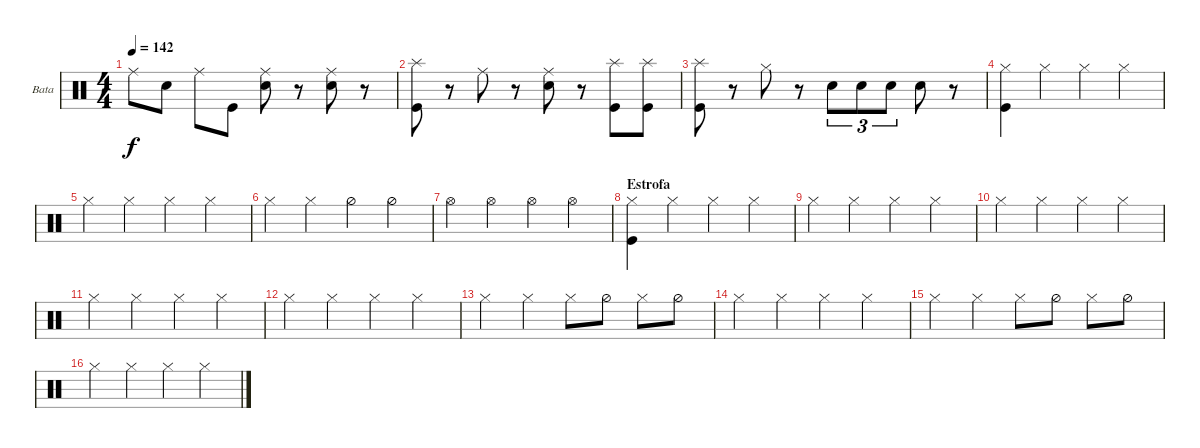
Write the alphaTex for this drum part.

\bracketExtendMode groupsimilarinstruments
\firstSystemTrackNameOrientation horizontal
\otherSystemsTrackNameOrientation horizontal
\track ("Bateria" "Bata") {instrument percussion}
\staff {score}
\articulation defaults
\ts (4 4)
\tempo 142
\clef neutral
\ks c "Ride (middle)".8{dy f} "Snare (hit) 2".8 "Ride (middle)".8 "Kick (hit)".8
("Snare (hit) 2" "Ride (middle)").8 r.8 ("Snare (hit) 2" "Ride (middle)").8 r.8 |
("Kick (hit)" "Splash (hit)").8 r.8 "Ride (middle)".8 r.8 ("Snare (hit) 2" "Ride (middle)").8 r.8 ("Kick (hit)" "Splash (hit)").8 ("Kick (hit)" "Splash (hit)").8 |
("Kick (hit)" "Splash (hit)").8 r.8 "Hi-Hat (closed)".8 r.8 "Snare (hit) 2".8{tu (3 2)} "Snare (hit) 2".8{tu (3 2)} "Snare (hit) 2".8{tu (3 2)} "Snare (hit) 2".8 r.8 |
("Kick (hit)" "Hi-Hat (closed)").4 "Hi-Hat (closed)".4 "Hi-Hat (closed)".4 "Hi-Hat (closed)".4 |
"Hi-Hat (closed)".4 "Hi-Hat (closed)".4 "Hi-Hat (closed)".4 "Hi-Hat (closed)".4 |
"Hi-Hat (closed)".4 "Hi-Hat (closed)".4 "Hi-Hat (half)".4 "Hi-Hat (half)".4 |
"Hi-Hat (open)".4 "Hi-Hat (open)".4 "Hi-Hat (open)".4 "Hi-Hat (open)".4 |
\section ("" "Estrofa")
("Hi-Hat (closed)" "Kick (hit)").4 "Hi-Hat (closed)".4 "Hi-Hat (closed)".4 "Hi-Hat (closed)".4 |
"Hi-Hat (closed)".4 "Hi-Hat (closed)".4 "Hi-Hat (closed)".4 "Hi-Hat (closed)".4 |
"Hi-Hat (closed)".4 "Hi-Hat (closed)".4 "Hi-Hat (closed)".4 "Hi-Hat (closed)".4 |
"Hi-Hat (closed)".4 "Hi-Hat (closed)".4 "Hi-Hat (closed)".4 "Hi-Hat (closed)".4 |
"Hi-Hat (closed)".4 "Hi-Hat (closed)".4 "Hi-Hat (closed)".4 "Hi-Hat (closed)".4 |
"Hi-Hat (closed)".4 "Hi-Hat (closed)".4 "Hi-Hat (closed)".8 "Hi-Hat (half)".8 "Hi-Hat (closed)".8 "Hi-Hat (half)".8 |
"Hi-Hat (closed)".4 "Hi-Hat (closed)".4 "Hi-Hat (closed)".4 "Hi-Hat (closed)".4 |
"Hi-Hat (closed)".4 "Hi-Hat (closed)".4 "Hi-Hat (closed)".8 "Hi-Hat (half)".8 "Hi-Hat (closed)".8 "Hi-Hat (half)".8 |
"Hi-Hat (closed)".4 "Hi-Hat (closed)".4 "Hi-Hat (closed)".4 "Hi-Hat (closed)".4
